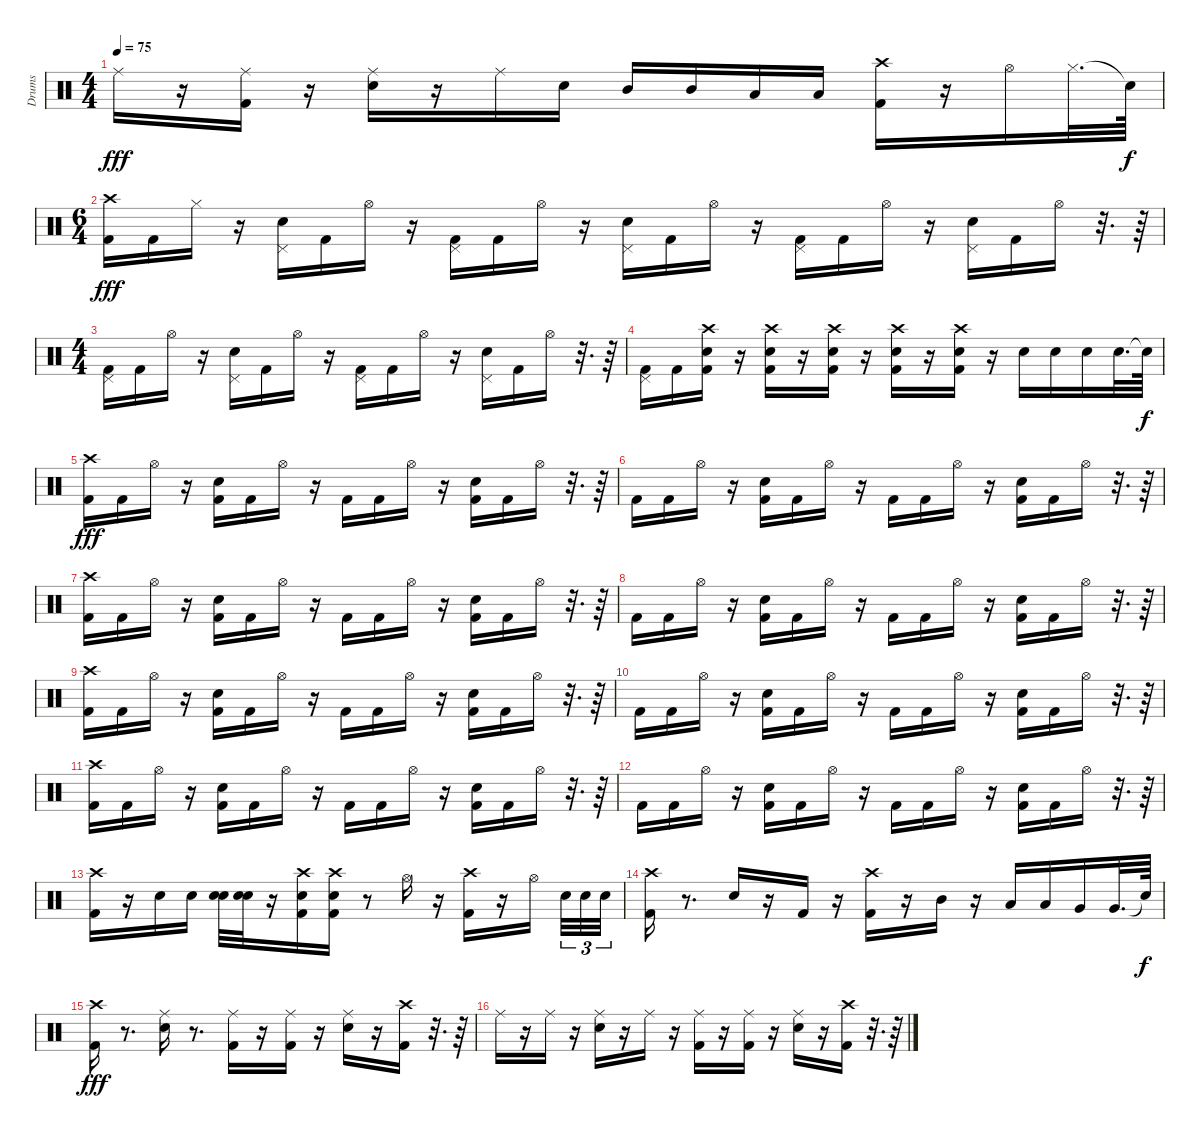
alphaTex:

\track ("Drums" "Drums") {instrument percussion}
\staff {score}
\articulation defaults
\ts (4 4)
\tempo 75
\clef neutral
\ks c "Ride (middle)".16{dy fff}
r.16 ("Kick (hit) 2" "Ride (middle)").16 r.16 ("Electric Snare (hit)" "Ride (middle)").16 r.16 "Ride (middle)".16 "Electric Snare (hit)".16 "Mid Tom (hit)".16 "Mid Tom (hit)".16 "Low Tom (hit)".16 "Low Tom (hit)".16 ("Crash high (hit)" "Kick (hit) 2").16 r.16 "Hi-Hat (open)".16 "Hi-Hat (closed)".32{d} "Snare (hit)"{t}.64{dy f} |
\ts (6 4)
("Kick (hit) 2" "Crash high (hit)").16{dy fff} "Kick (hit) 2".16 "Hi-Hat (closed)".16 r.16 ("Electric Snare (hit)" "Pedal Hi-Hat (hit)").16 "Kick (hit) 2".16 "Hi-Hat (open)".16 r.16 ("Kick (hit) 2" "Pedal Hi-Hat (hit)").16 "Kick (hit) 2".16 "Hi-Hat (open)".16 r.16 ("Electric Snare (hit)" "Pedal Hi-Hat (hit)").16 "Kick (hit) 2".16 "Hi-Hat (open)".16 r.16 ("Kick (hit) 2" "Pedal Hi-Hat (hit)").16 "Kick (hit) 2".16 "Hi-Hat (open)".16 r.16 ("Electric Snare (hit)" "Pedal Hi-Hat (hit)").16 "Kick (hit) 2".16 "Hi-Hat (open)".16 r.32{d} r.64 |
\ts (4 4)
("Kick (hit) 2" "Pedal Hi-Hat (hit)").16 "Kick (hit) 2".16 "Hi-Hat (open)".16 r.16 ("Electric Snare (hit)" "Pedal Hi-Hat (hit)").16 "Kick (hit) 2".16 "Hi-Hat (open)".16 r.16 ("Kick (hit) 2" "Pedal Hi-Hat (hit)").16 "Kick (hit) 2".16 "Hi-Hat (open)".16 r.16 ("Electric Snare (hit)" "Pedal Hi-Hat (hit)").16 "Kick (hit) 2".16 "Hi-Hat (open)".16 r.32{d} r.64 |
("Pedal Hi-Hat (hit)" "Kick (hit) 2").16 "Kick (hit) 2".16 ("Electric Snare (hit)" "Crash high (hit)" "Kick (hit) 2").16 r.16 ("Electric Snare (hit)" "Crash high (hit)" "Kick (hit) 2").16 r.16 ("Electric Snare (hit)" "Crash high (hit)" "Kick (hit) 2").16 r.16 ("Electric Snare (hit)" "Crash high (hit)" "Kick (hit) 2").16 r.16 ("Kick (hit) 2" "Electric Snare (hit)" "Crash high (hit)").16 r.16 "Electric Snare (hit)".16 "Electric Snare (hit)".16 "Electric Snare (hit)".16 "Electric Snare (hit)".32{d} "Snare (hit)"{t}.64{dy f} |
("Kick (hit) 2" "Crash high (hit)").16{dy fff} "Kick (hit) 2".16 "Hi-Hat (open)".16 r.16 ("Kick (hit) 2" "Electric Snare (hit)").16 "Kick (hit) 2".16 "Hi-Hat (open)".16 r.16 "Kick (hit) 2".16 "Kick (hit) 2".16 "Hi-Hat (open)".16 r.16 ("Kick (hit) 2" "Electric Snare (hit)").16 "Kick (hit) 2".16 "Hi-Hat (open)".16 r.32{d} r.64 |
"Kick (hit) 2".16 "Kick (hit) 2".16 "Hi-Hat (open)".16 r.16 ("Electric Snare (hit)" "Kick (hit) 2").16 "Kick (hit) 2".16 "Hi-Hat (open)".16 r.16 "Kick (hit) 2".16 "Kick (hit) 2".16 "Hi-Hat (open)".16 r.16 ("Electric Snare (hit)" "Kick (hit) 2").16 "Kick (hit) 2".16 "Hi-Hat (open)".16 r.32{d} r.64 |
("Crash high (hit)" "Kick (hit) 2").16 "Kick (hit) 2".16 "Hi-Hat (open)".16 r.16 ("Electric Snare (hit)" "Kick (hit) 2").16 "Kick (hit) 2".16 "Hi-Hat (open)".16 r.16 "Kick (hit) 2".16 "Kick (hit) 2".16 "Hi-Hat (open)".16 r.16 ("Electric Snare (hit)" "Kick (hit) 2").16 "Kick (hit) 2".16 "Hi-Hat (open)".16 r.32{d} r.64 |
"Kick (hit) 2".16 "Kick (hit) 2".16 "Hi-Hat (open)".16 r.16 ("Kick (hit) 2" "Electric Snare (hit)").16 "Kick (hit) 2".16 "Hi-Hat (open)".16 r.16 "Kick (hit) 2".16 "Kick (hit) 2".16 "Hi-Hat (open)".16 r.16 ("Kick (hit) 2" "Electric Snare (hit)").16 "Kick (hit) 2".16 "Hi-Hat (open)".16 r.32{d} r.64 |
("Crash high (hit)" "Kick (hit) 2").16 "Kick (hit) 2".16 "Hi-Hat (open)".16 r.16 ("Electric Snare (hit)" "Kick (hit) 2").16 "Kick (hit) 2".16 "Hi-Hat (open)".16 r.16 "Kick (hit) 2".16 "Kick (hit) 2".16 "Hi-Hat (open)".16 r.16 ("Electric Snare (hit)" "Kick (hit) 2").16 "Kick (hit) 2".16 "Hi-Hat (open)".16 r.32{d} r.64 |
"Kick (hit) 2".16 "Kick (hit) 2".16 "Hi-Hat (open)".16 r.16 ("Kick (hit) 2" "Electric Snare (hit)").16 "Kick (hit) 2".16 "Hi-Hat (open)".16 r.16 "Kick (hit) 2".16 "Kick (hit) 2".16 "Hi-Hat (open)".16 r.16 ("Kick (hit) 2" "Electric Snare (hit)").16 "Kick (hit) 2".16 "Hi-Hat (open)".16 r.32{d} r.64 |
("Kick (hit) 2" "Crash high (hit)").16 "Kick (hit) 2".16 "Hi-Hat (open)".16 r.16 ("Kick (hit) 2" "Electric Snare (hit)").16 "Kick (hit) 2".16 "Hi-Hat (open)".16 r.16 "Kick (hit) 2".16 "Kick (hit) 2".16 "Hi-Hat (open)".16 r.16 ("Kick (hit) 2" "Electric Snare (hit)").16 "Kick (hit) 2".16 "Hi-Hat (open)".16 r.32{d} r.64 |
"Kick (hit) 2".16 "Kick (hit) 2".16 "Hi-Hat (open)".16 r.16 ("Electric Snare (hit)" "Kick (hit) 2").16 "Kick (hit) 2".16 "Hi-Hat (open)".16 r.16 "Kick (hit) 2".16 "Kick (hit) 2".16 "Hi-Hat (open)".16 r.16 ("Electric Snare (hit)" "Kick (hit) 2").16 "Kick (hit) 2".16 "Hi-Hat (open)".16 r.32{d} r.64 |
("Kick (hit) 2" "Crash high (hit)").16 r.16 "Electric Snare (hit)".16 "Electric Snare (hit)".16 ("Electric Snare (hit)" "Electric Snare (hit)").32 ("Electric Snare (hit)" "Electric Snare (hit)").32 r.16 ("Electric Snare (hit)" "Crash high (hit)" "Kick (hit) 2").16 ("Kick (hit) 2" "Crash high (hit)" "Electric Snare (hit)").16 r.8 "Hi-Hat (open)".16 r.16 ("Kick (hit) 2" "Crash high (hit)").16 r.16 "Hi-Hat (open)".16{beam splitsecondary} "Electric Snare (hit)".32{tu (3 2)} "Electric Snare (hit)".32{tu (3 2)} "Electric Snare (hit)".32{tu (3 2)} |
("Kick (hit) 2" "Crash high (hit)").16 r.8{d} "Electric Snare (hit)".16 r.16 "Kick (hit) 2".16 r.16 ("Kick (hit) 2" "Crash high (hit)").16 r.16 "Mid Tom (hit)".16 r.16 "Low Tom (hit)".16 "Low Tom (hit)".16 "Very Low Tom (hit)".16 "Very Low Tom (hit)".32{d} "Snare (hit)"{t}.64{dy f} |
("Kick (hit) 2" "Crash high (hit)").16{dy fff} r.8{d} ("Electric Snare (hit)" "Ride (middle)").16 r.8{d} ("Kick (hit) 2" "Ride (middle)").16 r.16 ("Kick (hit) 2" "Ride (middle)").16 r.16 ("Electric Snare (hit)" "Ride (middle)").16 r.16 ("Crash high (hit)" "Kick (hit) 2").16 r.32{d} r.64 |
"Ride (middle)".16 r.16 "Ride (middle)".16 r.16 ("Ride (middle)" "Electric Snare (hit)").16 r.16 "Ride (middle)".16 r.16 ("Ride (middle)" "Kick (hit) 2").16 r.16 ("Ride (middle)" "Kick (hit) 2").16 r.16 ("Ride (middle)" "Electric Snare (hit)").16 r.16 ("Kick (hit) 2" "Crash high (hit)").16 r.32{d} r.64
